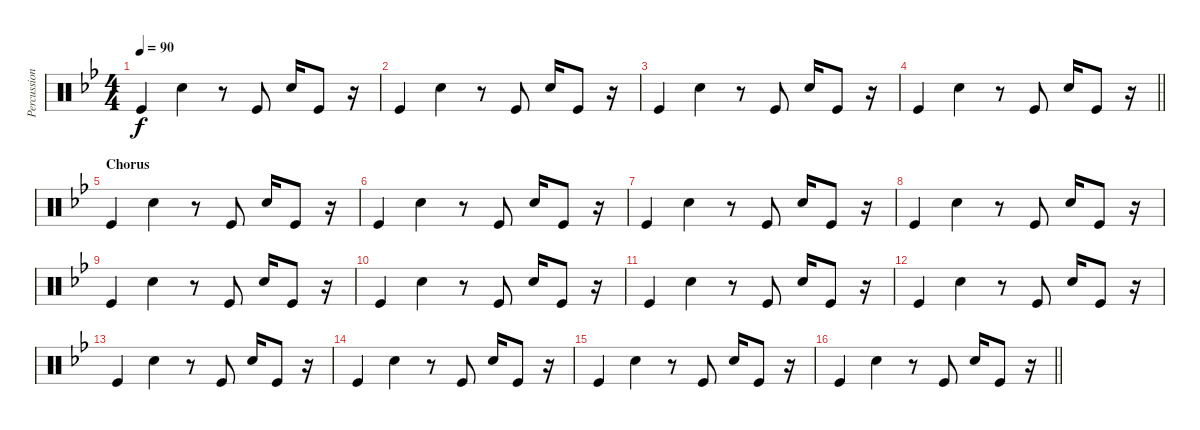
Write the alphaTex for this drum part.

\track ("Percussion" "Percussion") {instrument percussion}
\staff {score}
\articulation defaults
\ts (4 4)
\tempo 90
\clef neutral
\ks bb "Kick (hit)".4{dy f} "Electric Snare (hit)".4
r.8 "Kick (hit)".8 "Electric Snare (hit)".16 "Kick (hit)".8 r.16 |
"Kick (hit)".4 "Electric Snare (hit)".4 r.8 "Kick (hit)".8 "Electric Snare (hit)".16 "Kick (hit)".8 r.16 |
"Kick (hit)".4 "Electric Snare (hit)".4 r.8 "Kick (hit)".8 "Electric Snare (hit)".16 "Kick (hit)".8 r.16 |
\barLineRight lightlight "Kick (hit)".4 "Electric Snare (hit)".4
r.8 "Kick (hit)".8 "Electric Snare (hit)".16 "Kick (hit)".8 r.16 |
\section ("" "Chorus")
"Kick (hit)".4 "Electric Snare (hit)".4 r.8 "Kick (hit)".8 "Electric Snare (hit)".16 "Kick (hit)".8 r.16 |
"Kick (hit)".4 "Electric Snare (hit)".4 r.8 "Kick (hit)".8 "Electric Snare (hit)".16 "Kick (hit)".8 r.16 |
"Kick (hit)".4 "Electric Snare (hit)".4 r.8 "Kick (hit)".8 "Electric Snare (hit)".16 "Kick (hit)".8 r.16 |
"Kick (hit)".4 "Electric Snare (hit)".4 r.8 "Kick (hit)".8 "Electric Snare (hit)".16 "Kick (hit)".8 r.16 |
"Kick (hit)".4 "Electric Snare (hit)".4 r.8 "Kick (hit)".8 "Electric Snare (hit)".16 "Kick (hit)".8 r.16 |
"Kick (hit)".4 "Electric Snare (hit)".4 r.8 "Kick (hit)".8 "Electric Snare (hit)".16 "Kick (hit)".8 r.16 |
"Kick (hit)".4 "Electric Snare (hit)".4 r.8 "Kick (hit)".8 "Electric Snare (hit)".16 "Kick (hit)".8 r.16 |
"Kick (hit)".4 "Electric Snare (hit)".4 r.8 "Kick (hit)".8 "Electric Snare (hit)".16 "Kick (hit)".8 r.16 |
"Kick (hit)".4 "Electric Snare (hit)".4 r.8 "Kick (hit)".8 "Electric Snare (hit)".16 "Kick (hit)".8 r.16 |
"Kick (hit)".4 "Electric Snare (hit)".4 r.8 "Kick (hit)".8 "Electric Snare (hit)".16 "Kick (hit)".8 r.16 |
"Kick (hit)".4 "Electric Snare (hit)".4 r.8 "Kick (hit)".8 "Electric Snare (hit)".16 "Kick (hit)".8 r.16 |
\barLineRight lightlight "Kick (hit)".4 "Electric Snare (hit)".4
r.8 "Kick (hit)".8 "Electric Snare (hit)".16 "Kick (hit)".8 r.16
